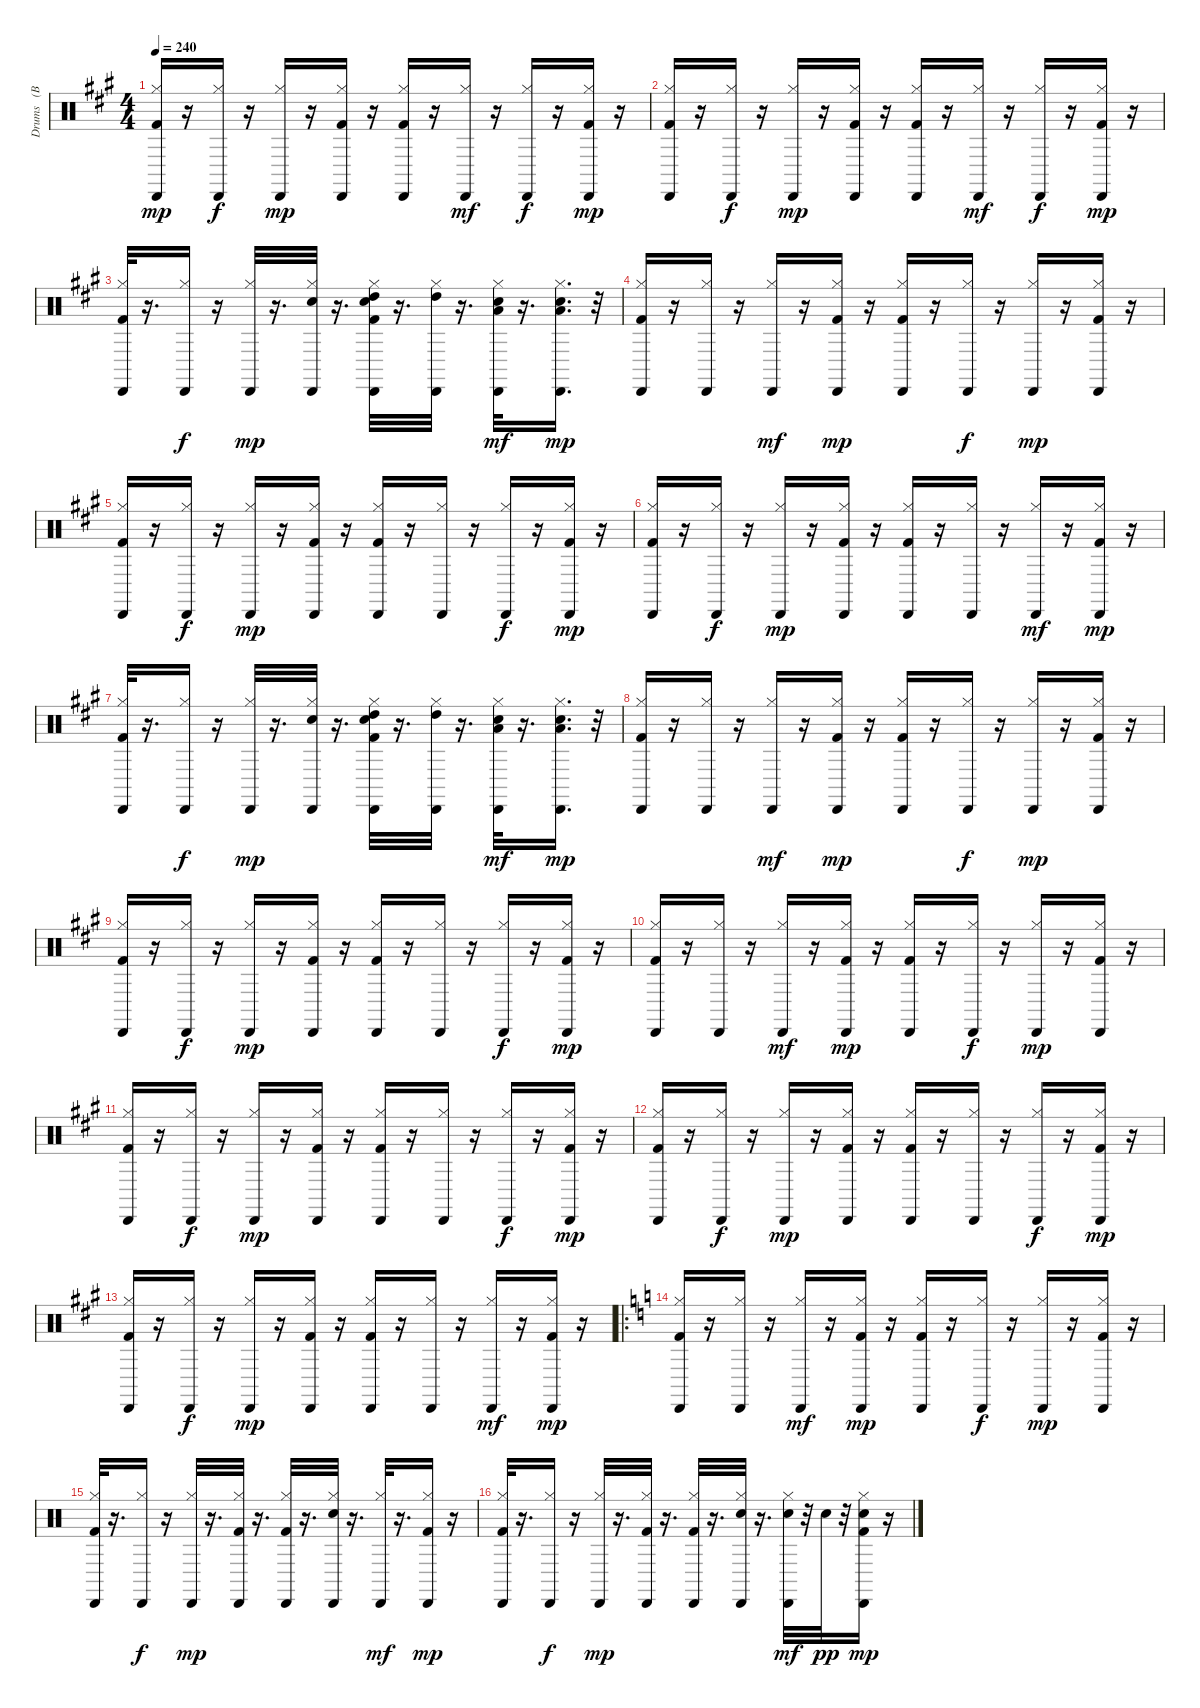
\track ("Drums   (BB)" "Drums   (B") {instrument percussion}
\staff {score}
\articulation defaults
\ts (4 4)
\tempo 240
\clef neutral
\ks a
("Kick (hit) 2" "Hi-Hat (closed)" "Cabasa (hit)").16{dy mp} r.16 ("Hi-Hat (closed)" "Cabasa (hit)").16{dy f} r.16 ("Hi-Hat (closed)" "Cabasa (hit)").16{dy mp} r.16 ("Kick (hit) 2" "Hi-Hat (closed)" "Cabasa (hit)").16 r.16 ("Kick (hit) 2" "Hi-Hat (closed)" "Cabasa (hit)").16 r.16 ("Hi-Hat (closed)" "Cabasa (hit)").16{dy mf} r.16 ("Hi-Hat (closed)" "Cabasa (hit)").16{dy f} r.16 ("Kick (hit) 2" "Hi-Hat (closed)" "Cabasa (hit)").16{dy mp} r.16 |
("Kick (hit) 2" "Hi-Hat (closed)" "Cabasa (hit)").16 r.16 ("Hi-Hat (closed)" "Cabasa (hit)").16{dy f} r.16 ("Hi-Hat (closed)" "Cabasa (hit)").16{dy mp} r.16 ("Kick (hit) 2" "Hi-Hat (closed)" "Cabasa (hit)").16 r.16 ("Kick (hit) 2" "Hi-Hat (closed)" "Cabasa (hit)").16 r.16 ("Hi-Hat (closed)" "Cabasa (hit)").16{dy mf} r.16 ("Hi-Hat (closed)" "Cabasa (hit)").16{dy f} r.16 ("Kick (hit) 2" "Hi-Hat (closed)" "Cabasa (hit)").16{dy mp} r.16 |
("Kick (hit) 2" "Hi-Hat (closed)" "Cabasa (hit)").32 r.16{d} ("Hi-Hat (closed)" "Cabasa (hit)").16{dy f} r.16 ("Hi-Hat (closed)" "Cabasa (hit)").32{dy mp} r.16{d} ("Electric Snare (hit)" "Hi-Hat (closed)" "Cabasa (hit)").32 r.16{d} ("High Tom (hit)" "Electric Snare (hit)" "Kick (hit) 2" "Hi-Hat (closed)" "Cabasa (hit)").32 r.16{d} ("High Tom (hit)" "Hi-Hat (closed)" "Cabasa (hit)").32 r.16{d} ("Low Tom (hit)" "Electric Snare (hit)" "Hi-Hat (closed)" "Cabasa (hit)").32{dy mf} r.16{d} ("Low Tom (hit)" "Electric Snare (hit)" "Hi-Hat (closed)" "Cabasa (hit)").16{d dy mp} r.32 |
("Kick (hit) 2" "Hi-Hat (closed)" "Cabasa (hit)").16 r.16 ("Hi-Hat (closed)" "Cabasa (hit)").16 r.16 ("Hi-Hat (closed)" "Cabasa (hit)").16{dy mf} r.16 ("Kick (hit) 2" "Hi-Hat (closed)" "Cabasa (hit)").16{dy mp} r.16 ("Kick (hit) 2" "Hi-Hat (closed)" "Cabasa (hit)").16 r.16 ("Hi-Hat (closed)" "Cabasa (hit)").16{dy f} r.16 ("Hi-Hat (closed)" "Cabasa (hit)").16{dy mp} r.16 ("Kick (hit) 2" "Hi-Hat (closed)" "Cabasa (hit)").16 r.16 |
("Kick (hit) 2" "Hi-Hat (closed)" "Cabasa (hit)").16 r.16 ("Hi-Hat (closed)" "Cabasa (hit)").16{dy f} r.16 ("Hi-Hat (closed)" "Cabasa (hit)").16{dy mp} r.16 ("Kick (hit) 2" "Hi-Hat (closed)" "Cabasa (hit)").16 r.16 ("Kick (hit) 2" "Hi-Hat (closed)" "Cabasa (hit)").16 r.16 ("Hi-Hat (closed)" "Cabasa (hit)").16 r.16 ("Hi-Hat (closed)" "Cabasa (hit)").16{dy f} r.16 ("Kick (hit) 2" "Hi-Hat (closed)" "Cabasa (hit)").16{dy mp} r.16 |
("Kick (hit) 2" "Hi-Hat (closed)" "Cabasa (hit)").16 r.16 ("Hi-Hat (closed)" "Cabasa (hit)").16{dy f} r.16 ("Hi-Hat (closed)" "Cabasa (hit)").16{dy mp} r.16 ("Kick (hit) 2" "Hi-Hat (closed)" "Cabasa (hit)").16 r.16 ("Kick (hit) 2" "Hi-Hat (closed)" "Cabasa (hit)").16 r.16 ("Hi-Hat (closed)" "Cabasa (hit)").16 r.16 ("Hi-Hat (closed)" "Cabasa (hit)").16{dy mf} r.16 ("Kick (hit) 2" "Hi-Hat (closed)" "Cabasa (hit)").16{dy mp} r.16 |
("Kick (hit) 2" "Hi-Hat (closed)" "Cabasa (hit)").32 r.16{d} ("Hi-Hat (closed)" "Cabasa (hit)").16{dy f} r.16 ("Hi-Hat (closed)" "Cabasa (hit)").32{dy mp} r.16{d} ("Electric Snare (hit)" "Hi-Hat (closed)" "Cabasa (hit)").32 r.16{d} ("High Tom (hit)" "Electric Snare (hit)" "Kick (hit) 2" "Hi-Hat (closed)" "Cabasa (hit)").32 r.16{d} ("High Tom (hit)" "Hi-Hat (closed)" "Cabasa (hit)").32 r.16{d} ("Low Tom (hit)" "Electric Snare (hit)" "Hi-Hat (closed)" "Cabasa (hit)").32{dy mf} r.16{d} ("Low Tom (hit)" "Electric Snare (hit)" "Hi-Hat (closed)" "Cabasa (hit)").16{d dy mp} r.32 |
("Kick (hit) 2" "Hi-Hat (closed)" "Cabasa (hit)").16 r.16 ("Hi-Hat (closed)" "Cabasa (hit)").16 r.16 ("Hi-Hat (closed)" "Cabasa (hit)").16{dy mf} r.16 ("Kick (hit) 2" "Hi-Hat (closed)" "Cabasa (hit)").16{dy mp} r.16 ("Kick (hit) 2" "Hi-Hat (closed)" "Cabasa (hit)").16 r.16 ("Hi-Hat (closed)" "Cabasa (hit)").16{dy f} r.16 ("Hi-Hat (closed)" "Cabasa (hit)").16{dy mp} r.16 ("Kick (hit) 2" "Hi-Hat (closed)" "Cabasa (hit)").16 r.16 |
("Kick (hit) 2" "Hi-Hat (closed)" "Cabasa (hit)").16 r.16 ("Hi-Hat (closed)" "Cabasa (hit)").16{dy f} r.16 ("Hi-Hat (closed)" "Cabasa (hit)").16{dy mp} r.16 ("Kick (hit) 2" "Hi-Hat (closed)" "Cabasa (hit)").16 r.16 ("Kick (hit) 2" "Hi-Hat (closed)" "Cabasa (hit)").16 r.16 ("Hi-Hat (closed)" "Cabasa (hit)").16 r.16 ("Hi-Hat (closed)" "Cabasa (hit)").16{dy f} r.16 ("Kick (hit) 2" "Hi-Hat (closed)" "Cabasa (hit)").16{dy mp} r.16 |
("Kick (hit) 2" "Hi-Hat (closed)" "Cabasa (hit)").16 r.16 ("Hi-Hat (closed)" "Cabasa (hit)").16 r.16 ("Hi-Hat (closed)" "Cabasa (hit)").16{dy mf} r.16 ("Kick (hit) 2" "Hi-Hat (closed)" "Cabasa (hit)").16{dy mp} r.16 ("Kick (hit) 2" "Hi-Hat (closed)" "Cabasa (hit)").16 r.16 ("Hi-Hat (closed)" "Cabasa (hit)").16{dy f} r.16 ("Hi-Hat (closed)" "Cabasa (hit)").16{dy mp} r.16 ("Kick (hit) 2" "Hi-Hat (closed)" "Cabasa (hit)").16 r.16 |
("Kick (hit) 2" "Hi-Hat (closed)" "Cabasa (hit)").16 r.16 ("Hi-Hat (closed)" "Cabasa (hit)").16{dy f} r.16 ("Hi-Hat (closed)" "Cabasa (hit)").16{dy mp} r.16 ("Kick (hit) 2" "Hi-Hat (closed)" "Cabasa (hit)").16 r.16 ("Kick (hit) 2" "Hi-Hat (closed)" "Cabasa (hit)").16 r.16 ("Hi-Hat (closed)" "Cabasa (hit)").16 r.16 ("Hi-Hat (closed)" "Cabasa (hit)").16{dy f} r.16 ("Kick (hit) 2" "Hi-Hat (closed)" "Cabasa (hit)").16{dy mp} r.16 |
("Kick (hit) 2" "Hi-Hat (closed)" "Cabasa (hit)").16 r.16 ("Hi-Hat (closed)" "Cabasa (hit)").16{dy f} r.16 ("Hi-Hat (closed)" "Cabasa (hit)").16{dy mp} r.16 ("Kick (hit) 2" "Hi-Hat (closed)" "Cabasa (hit)").16 r.16 ("Kick (hit) 2" "Hi-Hat (closed)" "Cabasa (hit)").16 r.16 ("Hi-Hat (closed)" "Cabasa (hit)").16 r.16 ("Hi-Hat (closed)" "Cabasa (hit)").16{dy f} r.16 ("Kick (hit) 2" "Hi-Hat (closed)" "Cabasa (hit)").16{dy mp} r.16 |
("Kick (hit) 2" "Hi-Hat (closed)" "Cabasa (hit)").16 r.16 ("Hi-Hat (closed)" "Cabasa (hit)").16{dy f} r.16 ("Hi-Hat (closed)" "Cabasa (hit)").16{dy mp} r.16 ("Kick (hit) 2" "Hi-Hat (closed)" "Cabasa (hit)").16 r.16 ("Kick (hit) 2" "Hi-Hat (closed)" "Cabasa (hit)").16 r.16 ("Hi-Hat (closed)" "Cabasa (hit)").16 r.16 ("Hi-Hat (closed)" "Cabasa (hit)").16{dy mf} r.16 ("Kick (hit) 2" "Hi-Hat (closed)" "Cabasa (hit)").16{dy mp} r.16 |
\ro
\ks c
("Kick (hit) 2" "Hi-Hat (closed)" "Cabasa (hit)").16 r.16 ("Hi-Hat (closed)" "Cabasa (hit)").16 r.16 ("Hi-Hat (closed)" "Cabasa (hit)").16{dy mf} r.16 ("Kick (hit) 2" "Hi-Hat (closed)" "Cabasa (hit)").16{dy mp} r.16 ("Kick (hit) 2" "Hi-Hat (closed)" "Cabasa (hit)").16 r.16 ("Hi-Hat (closed)" "Cabasa (hit)").16{dy f} r.16 ("Hi-Hat (closed)" "Cabasa (hit)").16{dy mp} r.16 ("Kick (hit) 2" "Hi-Hat (closed)" "Cabasa (hit)").16 r.16 |
("Kick (hit) 2" "Hi-Hat (closed)" "Cabasa (hit)").32 r.16{d} ("Hi-Hat (closed)" "Cabasa (hit)").16{dy f} r.16 ("Hi-Hat (closed)" "Cabasa (hit)").32{dy mp} r.16{d} ("Kick (hit) 2" "Hi-Hat (closed)" "Cabasa (hit)").32 r.16{d} ("Kick (hit) 2" "Hi-Hat (closed)" "Cabasa (hit)").32 r.16{d} ("Electric Snare (hit)" "Hi-Hat (closed)" "Cabasa (hit)").32 r.16{d} ("Hi-Hat (closed)" "Cabasa (hit)").32{dy mf} r.16{d} ("Kick (hit) 2" "Hi-Hat (closed)" "Cabasa (hit)").16{dy mp} r.16 |
("Kick (hit) 2" "Hi-Hat (closed)" "Cabasa (hit)").32 r.16{d} ("Hi-Hat (closed)" "Cabasa (hit)").16{dy f} r.16 ("Hi-Hat (closed)" "Cabasa (hit)").32{dy mp} r.16{d} ("Kick (hit) 2" "Hi-Hat (closed)" "Cabasa (hit)").32 r.16{d} ("Kick (hit) 2" "Hi-Hat (closed)" "Cabasa (hit)").32 r.16{d} ("Electric Snare (hit)" "Hi-Hat (closed)" "Cabasa (hit)").32 r.16{d} ("Electric Snare (hit)" "Hi-Hat (closed)" "Cabasa (hit)").32{dy mf} r.32 "Snare (hit) 2".32{dy pp} r.32 ("Electric Snare (hit)" "Kick (hit) 2" "Hi-Hat (closed)" "Cabasa (hit)").16{dy mp} r.16
